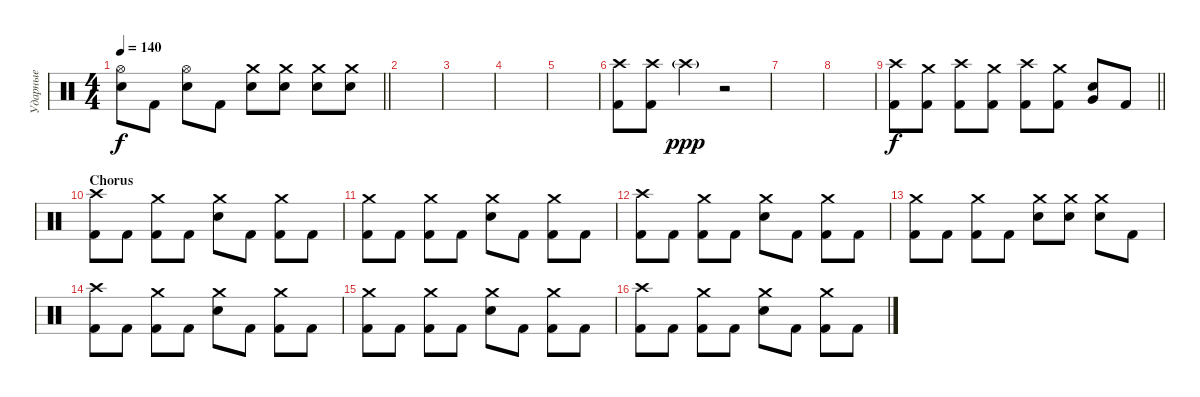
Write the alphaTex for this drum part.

\track ("Ударные" "Ударные") {instrument percussion}
\staff {score}
\articulation defaults
\ts (4 4)
\tempo 140
\clef neutral
\barLineRight lightlight
\ks c
("Hi-Hat (open)" "Snare (hit) 2").8{dy f} "Kick (hit) 2".8 ("Hi-Hat (open)" "Snare (hit) 2").8 "Kick (hit) 2".8 ("Crash medium (hit)" "Snare (hit) 2").8 ("Crash medium (hit)" "Snare (hit) 2").8 ("Crash medium (hit)" "Snare (hit) 2").8 ("Crash medium (hit)" "Snare (hit) 2").8 |
|
|
|
|
("Crash high (hit)" "Kick (hit) 2").8 ("Crash high (hit)" "Kick (hit) 2").8 "Crash high (hit)"{g}.4{dy ppp} r.2 |
|
|
\barLineRight lightlight
("Crash high (hit)" "Kick (hit) 2").8{dy f} ("Crash medium (hit)" "Kick (hit) 2").8 ("Crash high (hit)" "Kick (hit) 2").8 ("Crash medium (hit)" "Kick (hit) 2").8 ("Crash high (hit)" "Kick (hit) 2").8 ("Crash medium (hit)" "Kick (hit) 2").8 ("Snare (hit) 2" "Very Low Tom (hit)").8 "Kick (hit) 2".8 |
\section ("" "Chorus")
("Crash high (hit)" "Kick (hit) 2").8 "Kick (hit) 2".8 ("Crash medium (hit)" "Kick (hit) 2").8 "Kick (hit) 2".8 ("Crash medium (hit)" "Snare (hit) 2").8 "Kick (hit) 2".8 ("Crash medium (hit)" "Kick (hit) 2").8 "Kick (hit) 2".8 |
("Crash medium (hit)" "Kick (hit) 2").8 "Kick (hit) 2".8 ("Crash medium (hit)" "Kick (hit) 2").8 "Kick (hit) 2".8 ("Crash medium (hit)" "Snare (hit) 2").8 "Kick (hit) 2".8 ("Crash medium (hit)" "Kick (hit) 2").8 "Kick (hit) 2".8 |
("Crash high (hit)" "Kick (hit) 2").8 "Kick (hit) 2".8 ("Crash medium (hit)" "Kick (hit) 2").8 "Kick (hit) 2".8 ("Crash medium (hit)" "Snare (hit) 2").8 "Kick (hit) 2".8 ("Crash medium (hit)" "Kick (hit) 2").8 "Kick (hit) 2".8 |
("Crash medium (hit)" "Kick (hit) 2").8 "Kick (hit) 2".8 ("Crash medium (hit)" "Kick (hit) 2").8 "Kick (hit) 2".8 ("Crash medium (hit)" "Snare (hit) 2").8 ("Crash medium (hit)" "Snare (hit) 2").8 ("Crash medium (hit)" "Snare (hit) 2").8 "Kick (hit) 2".8 |
("Crash high (hit)" "Kick (hit) 2").8 "Kick (hit) 2".8 ("Crash medium (hit)" "Kick (hit) 2").8 "Kick (hit) 2".8 ("Crash medium (hit)" "Snare (hit) 2").8 "Kick (hit) 2".8 ("Crash medium (hit)" "Kick (hit) 2").8 "Kick (hit) 2".8 |
("Crash medium (hit)" "Kick (hit) 2").8 "Kick (hit) 2".8 ("Crash medium (hit)" "Kick (hit) 2").8 "Kick (hit) 2".8 ("Crash medium (hit)" "Snare (hit) 2").8 "Kick (hit) 2".8 ("Crash medium (hit)" "Kick (hit) 2").8 "Kick (hit) 2".8 |
("Crash high (hit)" "Kick (hit) 2").8 "Kick (hit) 2".8 ("Crash medium (hit)" "Kick (hit) 2").8 "Kick (hit) 2".8 ("Crash medium (hit)" "Snare (hit) 2").8 "Kick (hit) 2".8 ("Crash medium (hit)" "Kick (hit) 2").8 "Kick (hit) 2".8
